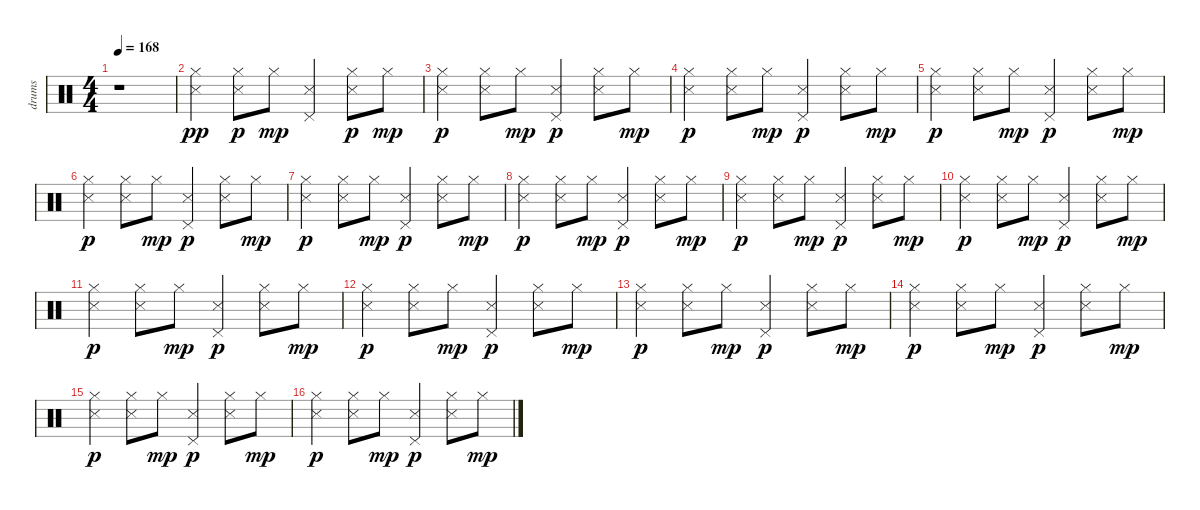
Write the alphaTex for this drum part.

\track ("drums" "drums") {instrument percussion}
\staff {score}
\articulation defaults
\ts (4 4)
\tempo 168
\clef neutral
\ks c
r.1{dy pp} |
("Hi-Hat (closed)" "Snare (side stick) 3").4 ("Hi-Hat (closed)" "Snare (side stick) 3").8{dy p} "Hi-Hat (closed)".8{dy mp} ("Pedal Hi-Hat (hit)" "Snare (side stick) 3").4 ("Hi-Hat (closed)" "Snare (side stick) 3").8{dy p} "Hi-Hat (closed)".8{dy mp} |
("Hi-Hat (closed)" "Snare (side stick) 3").4{dy p} ("Hi-Hat (closed)" "Snare (side stick) 3").8 "Hi-Hat (closed)".8{dy mp} ("Pedal Hi-Hat (hit)" "Snare (side stick) 3").4{dy p} ("Hi-Hat (closed)" "Snare (side stick) 3").8 "Hi-Hat (closed)".8{dy mp} |
("Hi-Hat (closed)" "Snare (side stick) 3").4{dy p} ("Hi-Hat (closed)" "Snare (side stick) 3").8 "Hi-Hat (closed)".8{dy mp} ("Pedal Hi-Hat (hit)" "Snare (side stick) 3").4{dy p} ("Hi-Hat (closed)" "Snare (side stick) 3").8 "Hi-Hat (closed)".8{dy mp} |
("Hi-Hat (closed)" "Snare (side stick) 3").4{dy p} ("Hi-Hat (closed)" "Snare (side stick) 3").8 "Hi-Hat (closed)".8{dy mp} ("Pedal Hi-Hat (hit)" "Snare (side stick) 3").4{dy p} ("Hi-Hat (closed)" "Snare (side stick) 3").8 "Hi-Hat (closed)".8{dy mp} |
("Hi-Hat (closed)" "Snare (side stick) 3").4{dy p} ("Hi-Hat (closed)" "Snare (side stick) 3").8 "Hi-Hat (closed)".8{dy mp} ("Pedal Hi-Hat (hit)" "Snare (side stick) 3").4{dy p} ("Hi-Hat (closed)" "Snare (side stick) 3").8 "Hi-Hat (closed)".8{dy mp} |
("Hi-Hat (closed)" "Snare (side stick) 3").4{dy p} ("Hi-Hat (closed)" "Snare (side stick) 3").8 "Hi-Hat (closed)".8{dy mp} ("Pedal Hi-Hat (hit)" "Snare (side stick) 3").4{dy p} ("Hi-Hat (closed)" "Snare (side stick) 3").8 "Hi-Hat (closed)".8{dy mp} |
("Hi-Hat (closed)" "Snare (side stick) 3").4{dy p} ("Hi-Hat (closed)" "Snare (side stick) 3").8 "Hi-Hat (closed)".8{dy mp} ("Pedal Hi-Hat (hit)" "Snare (side stick) 3").4{dy p} ("Hi-Hat (closed)" "Snare (side stick) 3").8 "Hi-Hat (closed)".8{dy mp} |
("Hi-Hat (closed)" "Snare (side stick) 3").4{dy p} ("Hi-Hat (closed)" "Snare (side stick) 3").8 "Hi-Hat (closed)".8{dy mp} ("Pedal Hi-Hat (hit)" "Snare (side stick) 3").4{dy p} ("Hi-Hat (closed)" "Snare (side stick) 3").8 "Hi-Hat (closed)".8{dy mp} |
("Hi-Hat (closed)" "Snare (side stick) 3").4{dy p} ("Hi-Hat (closed)" "Snare (side stick) 3").8 "Hi-Hat (closed)".8{dy mp} ("Pedal Hi-Hat (hit)" "Snare (side stick) 3").4{dy p} ("Hi-Hat (closed)" "Snare (side stick) 3").8 "Hi-Hat (closed)".8{dy mp} |
("Hi-Hat (closed)" "Snare (side stick) 3").4{dy p} ("Hi-Hat (closed)" "Snare (side stick) 3").8 "Hi-Hat (closed)".8{dy mp} ("Pedal Hi-Hat (hit)" "Snare (side stick) 3").4{dy p} ("Hi-Hat (closed)" "Snare (side stick) 3").8 "Hi-Hat (closed)".8{dy mp} |
("Hi-Hat (closed)" "Snare (side stick) 3").4{dy p} ("Hi-Hat (closed)" "Snare (side stick) 3").8 "Hi-Hat (closed)".8{dy mp} ("Pedal Hi-Hat (hit)" "Snare (side stick) 3").4{dy p} ("Hi-Hat (closed)" "Snare (side stick) 3").8 "Hi-Hat (closed)".8{dy mp} |
("Hi-Hat (closed)" "Snare (side stick) 3").4{dy p} ("Hi-Hat (closed)" "Snare (side stick) 3").8 "Hi-Hat (closed)".8{dy mp} ("Pedal Hi-Hat (hit)" "Snare (side stick) 3").4{dy p} ("Hi-Hat (closed)" "Snare (side stick) 3").8 "Hi-Hat (closed)".8{dy mp} |
("Hi-Hat (closed)" "Snare (side stick) 3").4{dy p} ("Hi-Hat (closed)" "Snare (side stick) 3").8 "Hi-Hat (closed)".8{dy mp} ("Pedal Hi-Hat (hit)" "Snare (side stick) 3").4{dy p} ("Hi-Hat (closed)" "Snare (side stick) 3").8 "Hi-Hat (closed)".8{dy mp} |
("Hi-Hat (closed)" "Snare (side stick) 3").4{dy p} ("Hi-Hat (closed)" "Snare (side stick) 3").8 "Hi-Hat (closed)".8{dy mp} ("Pedal Hi-Hat (hit)" "Snare (side stick) 3").4{dy p} ("Hi-Hat (closed)" "Snare (side stick) 3").8 "Hi-Hat (closed)".8{dy mp} |
("Hi-Hat (closed)" "Snare (side stick) 3").4{dy p} ("Hi-Hat (closed)" "Snare (side stick) 3").8 "Hi-Hat (closed)".8{dy mp} ("Pedal Hi-Hat (hit)" "Snare (side stick) 3").4{dy p} ("Hi-Hat (closed)" "Snare (side stick) 3").8 "Hi-Hat (closed)".8{dy mp}
